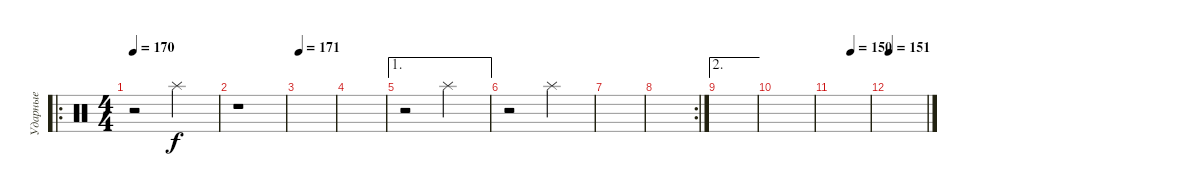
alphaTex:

\track ("Ударные" "Ударные") {instrument percussion}
\staff {score}
\articulation defaults
\ro
\ts (4 4)
\tempo 170
\clef neutral
\ks c
r.2{dy f} "Splash (hit)".2 |
r.1 |
\tempo 171
|
|
\ae 1
r.2 "Splash (hit)".2 |
r.2 "Splash (hit)".2 |
|
\rc 2
|
\ae 2
|
|
\tempo (150 0.5)
|
\tempo 151
